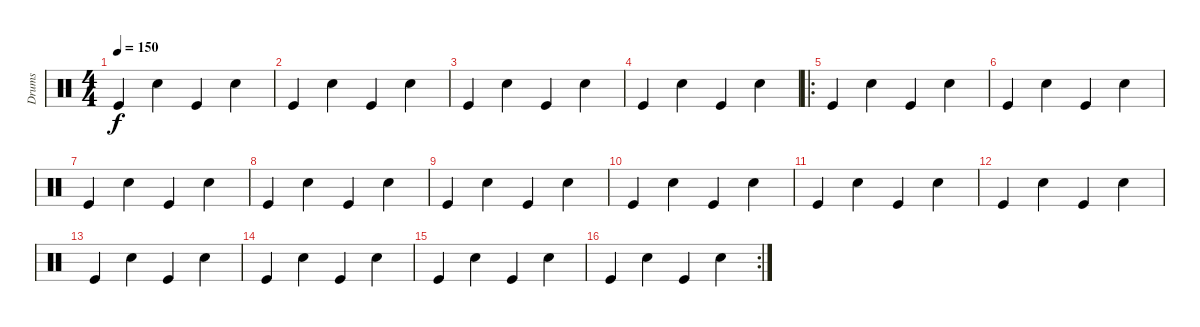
\track ("Drums" "Drums") {instrument percussion}
\staff {score}
\articulation defaults
\ts (4 4)
\tempo 150
\clef neutral
\ks c "Kick (hit)".4{dy f} "Snare (hit) 2".4 "Kick (hit)".4 "Snare (hit) 2".4
|
"Kick (hit)".4 "Snare (hit) 2".4 "Kick (hit)".4 "Snare (hit) 2".4 |
"Kick (hit)".4 "Snare (hit) 2".4 "Kick (hit)".4 "Snare (hit) 2".4 |
"Kick (hit)".4 "Snare (hit) 2".4 "Kick (hit)".4 "Snare (hit) 2".4 |
\ro "Kick (hit)".4 "Snare (hit) 2".4 "Kick (hit)".4 "Snare (hit) 2".4
|
"Kick (hit)".4 "Snare (hit) 2".4 "Kick (hit)".4 "Snare (hit) 2".4 |
"Kick (hit)".4 "Snare (hit) 2".4 "Kick (hit)".4 "Snare (hit) 2".4 |
"Kick (hit)".4 "Snare (hit) 2".4 "Kick (hit)".4 "Snare (hit) 2".4 |
"Kick (hit)".4 "Snare (hit) 2".4 "Kick (hit)".4 "Snare (hit) 2".4 |
"Kick (hit)".4 "Snare (hit) 2".4 "Kick (hit)".4 "Snare (hit) 2".4 |
"Kick (hit)".4 "Snare (hit) 2".4 "Kick (hit)".4 "Snare (hit) 2".4 |
"Kick (hit)".4 "Snare (hit) 2".4 "Kick (hit)".4 "Snare (hit) 2".4 |
"Kick (hit)".4 "Snare (hit) 2".4 "Kick (hit)".4 "Snare (hit) 2".4 |
"Kick (hit)".4 "Snare (hit) 2".4 "Kick (hit)".4 "Snare (hit) 2".4 |
"Kick (hit)".4 "Snare (hit) 2".4 "Kick (hit)".4 "Snare (hit) 2".4 |
\rc 2 "Kick (hit)".4 "Snare (hit) 2".4 "Kick (hit)".4 "Snare (hit) 2".4
